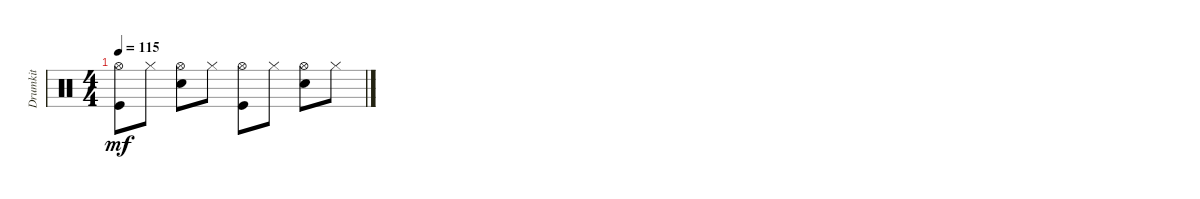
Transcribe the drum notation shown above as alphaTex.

\track ("Drumkit" "Drumkit") {instrument percussion}
\staff {score}
\articulation defaults
\ts (4 4)
\tempo 115
\clef neutral
\ks c
("Hi-Hat (open)" "Kick (hit)").8{dy mf} "Hi-Hat (closed)".8 ("Hi-Hat (open)" "Snare (hit) 2").8 "Hi-Hat (closed)".8 ("Hi-Hat (open)" "Kick (hit)").8 "Hi-Hat (closed)".8 ("Hi-Hat (open)" "Snare (hit) 2").8 "Hi-Hat (closed)".8
